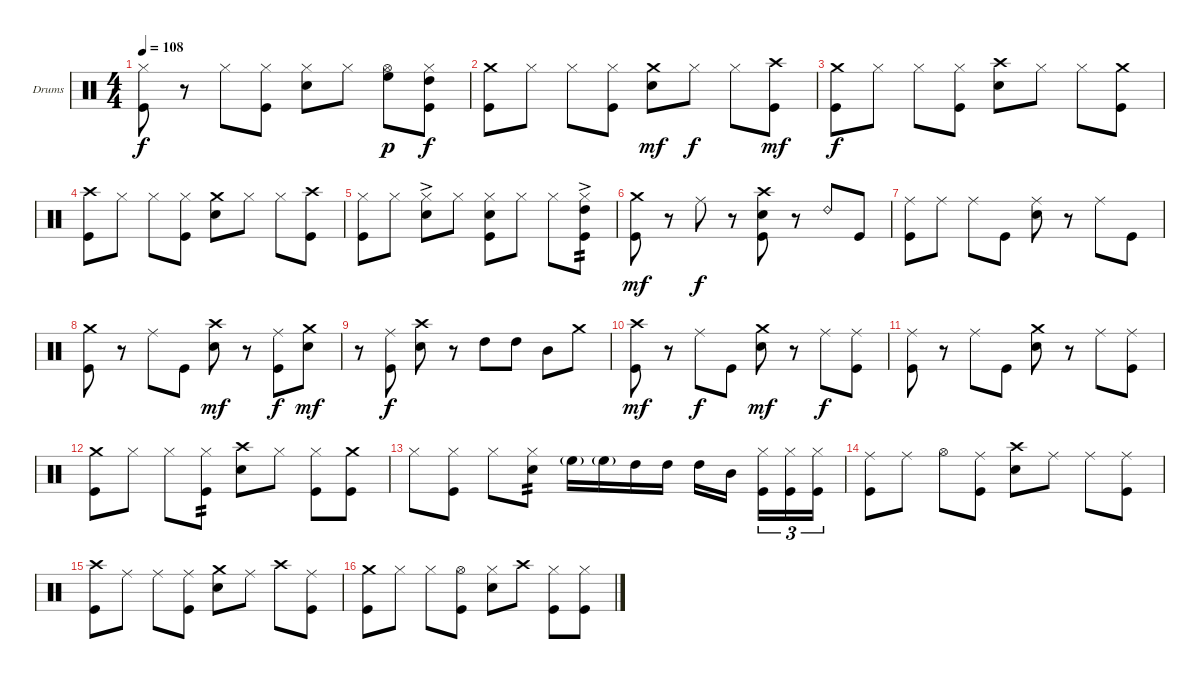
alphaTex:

\bracketExtendMode groupsimilarinstruments
\firstSystemTrackNameOrientation horizontal
\otherSystemsTrackNameOrientation horizontal
\track ("Drumkit" "Drums") {instrument percussion}
\staff {score}
\articulation defaults
\ts (4 4)
\tempo 108
\clef neutral
\ks c
("Hi-Hat (closed)" "Kick (hit)").8{dy f} r.8 "Hi-Hat (closed)".8 ("Hi-Hat (closed)" "Kick (hit)").8 ("Hi-Hat (closed)" "Snare (hit) 2").8 "Hi-Hat (closed)".8 ("Hi-Hat (open)" "High Floor Tom (hit)").8{dy p} ("Hi-Hat (closed)" "High Tom (hit)" "Kick (hit)").8{dy f} |
("Crash medium (hit)" "Kick (hit)").8 "Hi-Hat (closed)".8 "Hi-Hat (closed)".8 ("Hi-Hat (closed)" "Kick (hit)").8 ("Crash medium (hit)" "Snare (hit) 2").8{dy mf} "Hi-Hat (closed)".8{dy f} "Hi-Hat (closed)".8 ("Crash high (hit)" "Kick (hit)").8{dy mf} |
("Crash medium (hit)" "Kick (hit)").8{dy f} "Hi-Hat (closed)".8 "Hi-Hat (closed)".8 ("Hi-Hat (closed)" "Kick (hit)").8 ("Crash high (hit)" "Snare (hit) 2").8 "Hi-Hat (closed)".8 "Hi-Hat (closed)".8 ("Crash medium (hit)" "Kick (hit)").8 |
("Crash high (hit)" "Kick (hit)").8 "Hi-Hat (closed)".8 "Hi-Hat (closed)".8 ("Hi-Hat (closed)" "Kick (hit)").8 ("Crash medium (hit)" "Snare (hit) 2").8 "Hi-Hat (closed)".8 "Hi-Hat (closed)".8 ("Crash high (hit)" "Kick (hit)").8 |
("Hi-Hat (closed)" "Kick (hit)").8 "Hi-Hat (closed)".8 ("Hi-Hat (closed)" "Snare (hit) 2"{ac}).8 "Hi-Hat (closed)".8 ("Hi-Hat (closed)" "Snare (hit) 2" "Kick (hit)").8 "Hi-Hat (closed)".8 "Hi-Hat (closed)".8 ("Hi-Hat (closed)" "High Tom (hit)"{ac} "Kick (hit)").8{tp 2} |
("Crash medium (hit)" "Kick (hit)").8{dy mf} r.8 "Ride (middle)".8{dy f} r.8 ("Crash high (hit)" "Snare (hit) 2" "Kick (hit)").8 r.8 "Ride (bell) 2".8 "Kick (hit)".8 |
("Ride (middle)" "Kick (hit)").8 "Ride (middle)".8 "Ride (middle)".8 "Kick (hit)".8 ("Ride (middle)" "Snare (hit) 2").8 r.8 "Ride (middle)".8 "Kick (hit)".8 |
("Crash medium (hit)" "Kick (hit)").8 r.8 "Ride (middle)".8 "Kick (hit)".8 ("Crash high (hit)" "Snare (hit) 2").8{dy mf} r.8 ("Ride (middle)" "Kick (hit)").8{dy f} ("Crash medium (hit)" "Snare (hit) 2").8{dy mf} |
r.8 ("Ride (middle)" "Kick (hit)").8{dy f} ("Crash high (hit)" "Snare (hit) 2").8 r.8 "High Tom (hit)".8 "High Tom (hit)".8 "Mid Tom (hit)".8 "Crash medium (hit)".8 |
("Crash high (hit)" "Kick (hit)").8{dy mf} r.8 "Ride (middle)".8{dy f} "Kick (hit)".8 ("Crash medium (hit)" "Snare (hit) 2").8{dy mf} r.8 "Ride (middle)".8{dy f} ("Ride (middle)" "Kick (hit)").8 |
("Ride (middle)" "Kick (hit)").8 r.8 "Ride (middle)".8 "Kick (hit)".8 ("Crash medium (hit)" "Snare (hit) 2").8 r.8 "Ride (middle)".8 ("Ride (middle)" "Kick (hit)").8 |
("Crash medium (hit)" "Kick (hit)").8 "Hi-Hat (closed)".8 "Hi-Hat (closed)".8 ("Hi-Hat (closed)" "Kick (hit)").8{tp 2} ("Crash high (hit)" "Snare (hit) 2").8 "Hi-Hat (closed)".8 ("Hi-Hat (closed)" "Kick (hit)").8 ("Crash medium (hit)" "Kick (hit)").8 |
"Hi-Hat (closed)".8 ("Hi-Hat (closed)" "Kick (hit)").8 "Hi-Hat (closed)".8 ("Hi-Hat (closed)" "Snare (hit) 2").8{tp 2} "High Floor Tom (hit)"{g}.16 "High Floor Tom (hit)"{g}.16 "High Tom (hit)".16 "High Tom (hit)".16 "High Tom (hit)".16 "Mid Tom (hit)".16 ("Hi-Hat (closed)" "Kick (hit)").16{tu (3 2)} ("Hi-Hat (closed)" "Kick (hit)").16{tu (3 2)} ("Hi-Hat (closed)" "Kick (hit)").16{tu (3 2)} |
("Ride (middle)" "Kick (hit)").8 "Ride (middle)".8 "Hi-Hat (open)".8 ("Ride (middle)" "Kick (hit)").8 ("Crash high (hit)" "Snare (hit) 2").8 "Ride (middle)".8 "Ride (middle)".8 ("Ride (middle)" "Kick (hit)").8 |
("Crash high (hit)" "Kick (hit)").8 "Ride (middle)".8 "Ride (middle)".8 ("Ride (middle)" "Kick (hit)").8 ("Crash medium (hit)" "Snare (hit) 2").8 "Ride (middle)".8 "Crash high (hit)".8 ("Ride (middle)" "Kick (hit)").8 |
("Crash medium (hit)" "Kick (hit)").8 "Hi-Hat (closed)".8 "Hi-Hat (closed)".8 ("Hi-Hat (open)" "Kick (hit)").8 ("Hi-Hat (closed)" "Snare (hit) 2").8 "Crash high (hit)".8 ("Hi-Hat (closed)" "Kick (hit)").8 ("Hi-Hat (closed)" "Kick (hit)").8
